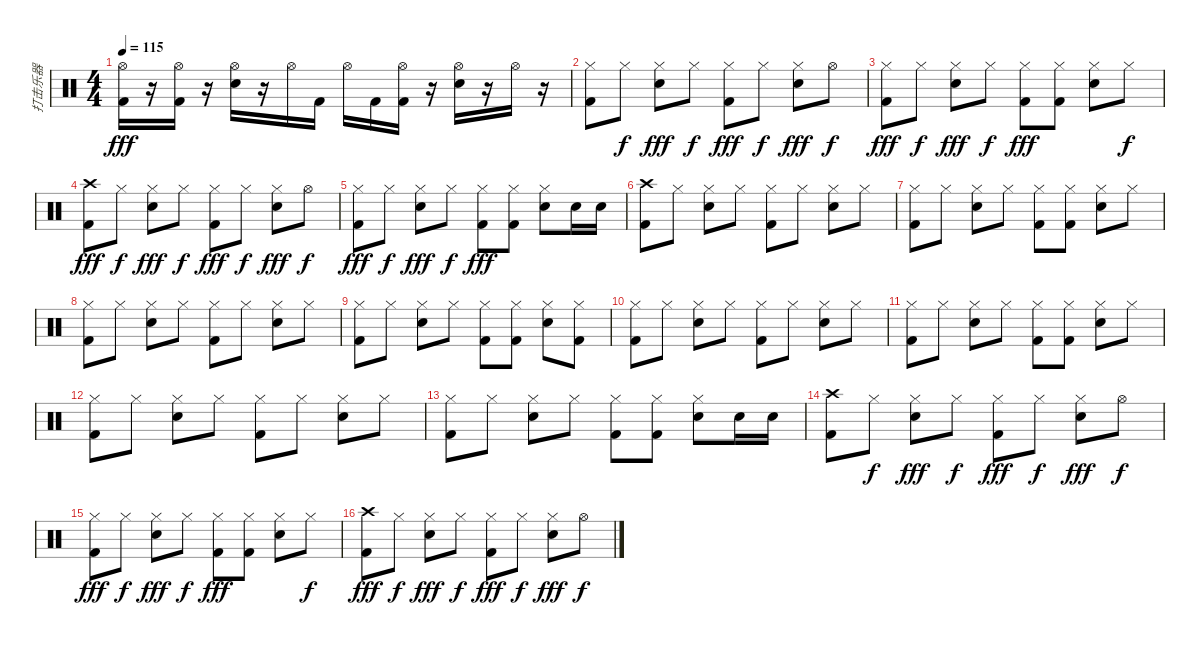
\track ("打击乐器" "打击乐器") {instrument percussion}
\staff {score}
\articulation defaults
\ts (4 4)
\tempo 115
\clef neutral
\ks c
("Hi-Hat (open)" "Kick (hit) 2").16{dy fff} r.16 ("Hi-Hat (open)" "Kick (hit) 2").16 r.16 ("Hi-Hat (open)" "Electric Snare (hit)").16 r.16 "Hi-Hat (open)".16 "Kick (hit) 2".16 "Hi-Hat (open)".16 "Kick (hit) 2".16 ("Hi-Hat (open)" "Kick (hit) 2").16 r.16 ("Hi-Hat (open)" "Electric Snare (hit)").16 r.16 "Hi-Hat (open)".16 r.16 |
("Hi-Hat (closed)" "Kick (hit) 2").8 "Hi-Hat (closed)".8{dy f} ("Hi-Hat (closed)" "Electric Snare (hit)").8{dy fff} "Hi-Hat (closed)".8{dy f} ("Hi-Hat (closed)" "Kick (hit) 2").8{dy fff} "Hi-Hat (closed)".8{dy f} ("Hi-Hat (closed)" "Electric Snare (hit)").8{dy fff} "Hi-Hat (open)".8{dy f} |
("Hi-Hat (closed)" "Kick (hit) 2").8{dy fff} "Hi-Hat (closed)".8{dy f} ("Hi-Hat (closed)" "Electric Snare (hit)").8{dy fff} "Hi-Hat (closed)".8{dy f} ("Hi-Hat (closed)" "Kick (hit) 2").8{dy fff} ("Hi-Hat (closed)" "Kick (hit) 2").8 ("Hi-Hat (closed)" "Electric Snare (hit)").8 "Hi-Hat (closed)".8{dy f} |
("Crash high (hit)" "Kick (hit) 2").8{dy fff} "Hi-Hat (closed)".8{dy f} ("Hi-Hat (closed)" "Electric Snare (hit)").8{dy fff} "Hi-Hat (closed)".8{dy f} ("Hi-Hat (closed)" "Kick (hit) 2").8{dy fff} "Hi-Hat (closed)".8{dy f} ("Hi-Hat (closed)" "Electric Snare (hit)").8{dy fff} "Hi-Hat (open)".8{dy f} |
("Hi-Hat (closed)" "Kick (hit) 2").8{dy fff} "Hi-Hat (closed)".8{dy f} ("Hi-Hat (closed)" "Electric Snare (hit)").8{dy fff} "Hi-Hat (closed)".8{dy f} ("Hi-Hat (closed)" "Kick (hit) 2").8{dy fff} ("Hi-Hat (closed)" "Kick (hit) 2").8 ("Hi-Hat (closed)" "Electric Snare (hit)").8 "Electric Snare (hit)".16 "Electric Snare (hit)".16 |
("Crash high (hit)" "Kick (hit) 2").8 "Hi-Hat (closed)".8 ("Hi-Hat (closed)" "Electric Snare (hit)").8 "Hi-Hat (closed)".8 ("Hi-Hat (closed)" "Kick (hit) 2").8 "Hi-Hat (closed)".8 ("Hi-Hat (closed)" "Electric Snare (hit)").8 "Hi-Hat (closed)".8 |
("Hi-Hat (closed)" "Kick (hit) 2").8 "Hi-Hat (closed)".8 ("Hi-Hat (closed)" "Electric Snare (hit)").8 "Hi-Hat (closed)".8 ("Hi-Hat (closed)" "Kick (hit) 2").8 ("Hi-Hat (closed)" "Kick (hit) 2").8 ("Hi-Hat (closed)" "Electric Snare (hit)").8 "Hi-Hat (closed)".8 |
("Hi-Hat (closed)" "Kick (hit) 2").8 "Hi-Hat (closed)".8 ("Hi-Hat (closed)" "Electric Snare (hit)").8 "Hi-Hat (closed)".8 ("Hi-Hat (closed)" "Kick (hit) 2").8 "Hi-Hat (closed)".8 ("Hi-Hat (closed)" "Electric Snare (hit)").8 "Hi-Hat (closed)".8 |
("Hi-Hat (closed)" "Kick (hit) 2").8 "Hi-Hat (closed)".8 ("Hi-Hat (closed)" "Electric Snare (hit)").8 "Hi-Hat (closed)".8 ("Hi-Hat (closed)" "Kick (hit) 2").8 ("Hi-Hat (closed)" "Kick (hit) 2").8 ("Hi-Hat (closed)" "Electric Snare (hit)").8 ("Hi-Hat (closed)" "Kick (hit) 2").8 |
("Hi-Hat (closed)" "Kick (hit) 2").8 "Hi-Hat (closed)".8 ("Hi-Hat (closed)" "Electric Snare (hit)").8 "Hi-Hat (closed)".8 ("Hi-Hat (closed)" "Kick (hit) 2").8 "Hi-Hat (closed)".8 ("Hi-Hat (closed)" "Electric Snare (hit)").8 "Hi-Hat (closed)".8 |
("Hi-Hat (closed)" "Kick (hit) 2").8 "Hi-Hat (closed)".8 ("Hi-Hat (closed)" "Electric Snare (hit)").8 "Hi-Hat (closed)".8 ("Hi-Hat (closed)" "Kick (hit) 2").8 ("Hi-Hat (closed)" "Kick (hit) 2").8 ("Hi-Hat (closed)" "Electric Snare (hit)").8 "Hi-Hat (closed)".8 |
("Hi-Hat (closed)" "Kick (hit) 2").8 "Hi-Hat (closed)".8 ("Hi-Hat (closed)" "Electric Snare (hit)").8 "Hi-Hat (closed)".8 ("Hi-Hat (closed)" "Kick (hit) 2").8 "Hi-Hat (closed)".8 ("Hi-Hat (closed)" "Electric Snare (hit)").8 "Hi-Hat (closed)".8 |
("Hi-Hat (closed)" "Kick (hit) 2").8 "Hi-Hat (closed)".8 ("Hi-Hat (closed)" "Electric Snare (hit)").8 "Hi-Hat (closed)".8 ("Hi-Hat (closed)" "Kick (hit) 2").8 ("Hi-Hat (closed)" "Kick (hit) 2").8 ("Hi-Hat (closed)" "Electric Snare (hit)").8 "Electric Snare (hit)".16 "Electric Snare (hit)".16 |
("Crash high (hit)" "Kick (hit) 2").8 "Hi-Hat (closed)".8{dy f} ("Hi-Hat (closed)" "Electric Snare (hit)").8{dy fff} "Hi-Hat (closed)".8{dy f} ("Hi-Hat (closed)" "Kick (hit) 2").8{dy fff} "Hi-Hat (closed)".8{dy f} ("Hi-Hat (closed)" "Electric Snare (hit)").8{dy fff} "Hi-Hat (open)".8{dy f} |
("Hi-Hat (closed)" "Kick (hit) 2").8{dy fff} "Hi-Hat (closed)".8{dy f} ("Hi-Hat (closed)" "Electric Snare (hit)").8{dy fff} "Hi-Hat (closed)".8{dy f} ("Hi-Hat (closed)" "Kick (hit) 2").8{dy fff} ("Hi-Hat (closed)" "Kick (hit) 2").8 ("Hi-Hat (closed)" "Electric Snare (hit)").8 "Hi-Hat (closed)".8{dy f} |
("Crash high (hit)" "Kick (hit) 2").8{dy fff} "Hi-Hat (closed)".8{dy f} ("Hi-Hat (closed)" "Electric Snare (hit)").8{dy fff} "Hi-Hat (closed)".8{dy f} ("Hi-Hat (closed)" "Kick (hit) 2").8{dy fff} "Hi-Hat (closed)".8{dy f} ("Hi-Hat (closed)" "Electric Snare (hit)").8{dy fff} "Hi-Hat (open)".8{dy f}
